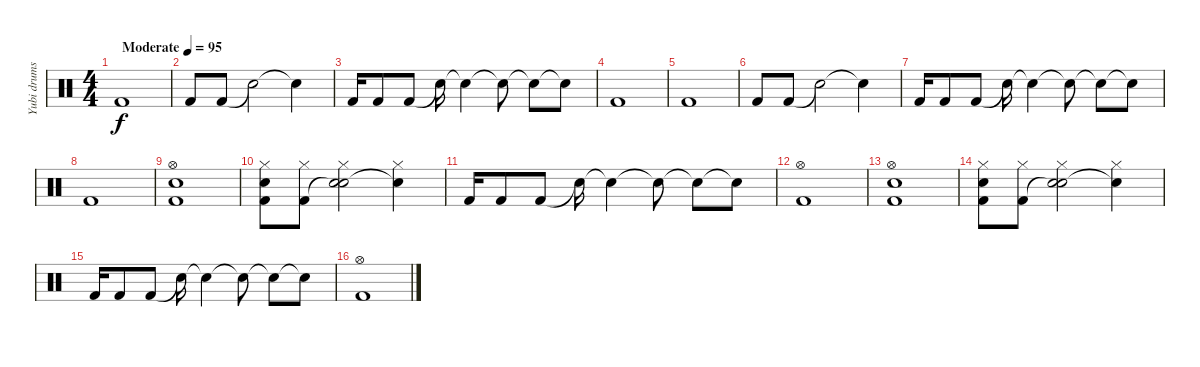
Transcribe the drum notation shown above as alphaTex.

\track ("Yubi drums" "Yubi drums") {instrument percussion}
\staff {score}
\articulation defaults
\ts (4 4)
\tempo (95 "Moderate")
\clef neutral
\ks c "Kick (hit) 2".1{dy f}
|
"Kick (hit) 2".8 "Kick (hit) 2".8 "Snare (hit)"{t}.2 "Snare (hit)"{t}.4 |
"Kick (hit) 2".16 "Kick (hit) 2".8 "Kick (hit) 2".8 "Snare (hit)"{t}.16 "Snare (hit)"{t}.4 "Snare (hit)"{t}.8 "Snare (hit)"{t}.8 "Snare (hit)"{t}.8 |
"Kick (hit) 2".1 |
"Kick (hit) 2".1 |
"Kick (hit) 2".8 "Kick (hit) 2".8 "Snare (hit)"{t}.2 "Snare (hit)"{t}.4 |
"Kick (hit) 2".16 "Kick (hit) 2".8 "Kick (hit) 2".8 "Snare (hit)"{t}.16 "Snare (hit)"{t}.4 "Snare (hit)"{t}.8 "Snare (hit)"{t}.8 "Snare (hit)"{t}.8 |
"Kick (hit) 2".1 |
("Kick (hit) 2" "Snare (hit) 2" "Hi-Hat (open)").1 |
("Kick (hit) 2" "Snare (hit) 2" "Hi-Hat (closed)").8 ("Kick (hit) 2" "Hi-Hat (closed)").8 ("Snare (hit)"{t} "Snare (hit) 2" "Hi-Hat (closed)").2 ("Snare (hit)"{t} "Hi-Hat (closed)").4 |
"Kick (hit) 2".16 "Kick (hit) 2".8 "Kick (hit) 2".8 "Snare (hit)"{t}.16 "Snare (hit)"{t}.4 "Snare (hit)"{t}.8 "Snare (hit)"{t}.8 "Snare (hit)"{t}.8 |
("Kick (hit) 2" "Hi-Hat (open)").1 |
("Kick (hit) 2" "Snare (hit) 2" "Hi-Hat (open)").1 |
("Kick (hit) 2" "Snare (hit) 2" "Hi-Hat (closed)").8 ("Kick (hit) 2" "Hi-Hat (closed)").8 ("Snare (hit)"{t} "Snare (hit) 2" "Hi-Hat (closed)").2 ("Snare (hit)"{t} "Hi-Hat (closed)").4 |
"Kick (hit) 2".16 "Kick (hit) 2".8 "Kick (hit) 2".8 "Snare (hit)"{t}.16 "Snare (hit)"{t}.4 "Snare (hit)"{t}.8 "Snare (hit)"{t}.8 "Snare (hit)"{t}.8 |
("Kick (hit) 2" "Hi-Hat (open)").1
